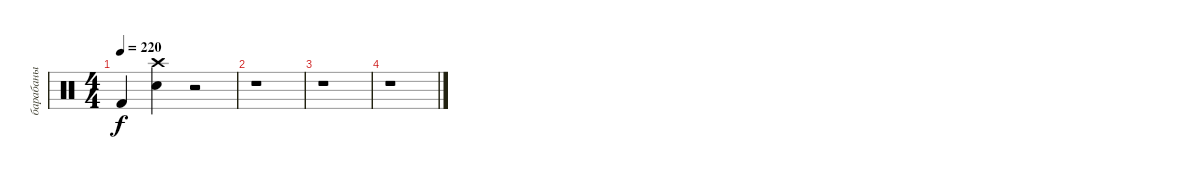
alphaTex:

\track ("барабаны" "барабаны") {instrument percussion}
\staff {score}
\articulation defaults
\ts (4 4)
\tempo 220
\clef neutral
\ks c "Kick (hit) 2".4{dy f}
("Crash high (hit)" "Snare (hit) 2").4{volume 0} r.2 |
r.1 |
r.1 |
r.1
